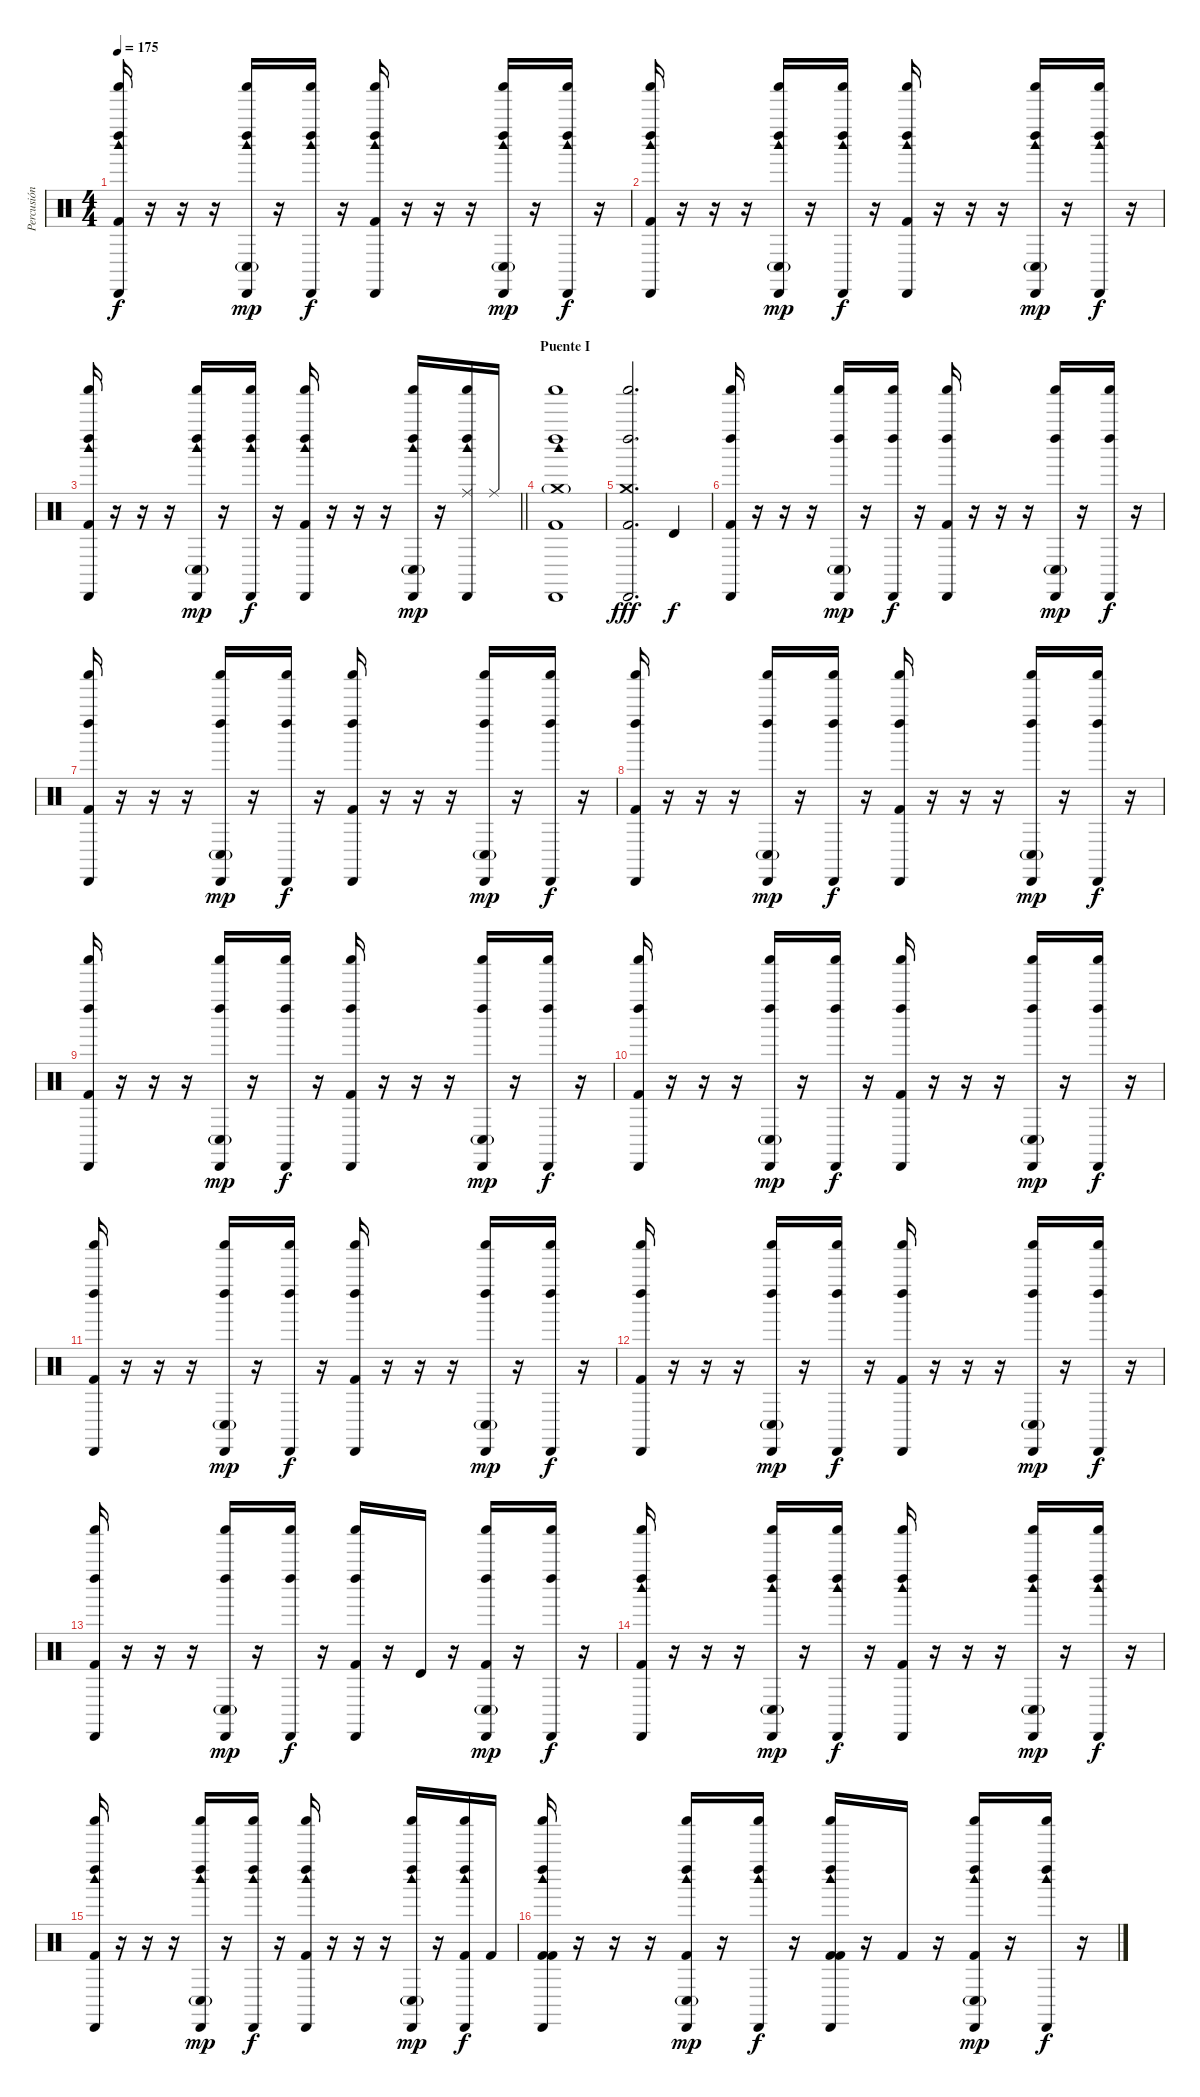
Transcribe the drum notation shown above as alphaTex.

\track ("Percusión" "Percusión") {instrument percussion}
\staff {score}
\articulation defaults
\ts (4 4)
\tempo 175
\clef neutral
\ks c
("Cabasa (hit)" "Shaker (hit)" "Kick (hit) 2" "Left Maraca (hit)" "Woodblock high (hit)").16{dy f} r.16 r.16 r.16 ("Cabasa (hit)" "Shaker (hit)" "Conga low (hit)"{g} "Left Maraca (hit)" "Woodblock high (hit)").16{dy mp} r.16 ("Cabasa (hit)" "Shaker (hit)" "Left Maraca (hit)" "Woodblock high (hit)").16{dy f} r.16 ("Cabasa (hit)" "Shaker (hit)" "Kick (hit) 2" "Left Maraca (hit)" "Woodblock high (hit)").16 r.16 r.16 r.16 ("Cabasa (hit)" "Shaker (hit)" "Conga low (hit)"{g} "Left Maraca (hit)" "Woodblock high (hit)").16{dy mp} r.16 ("Cabasa (hit)" "Shaker (hit)" "Left Maraca (hit)" "Woodblock high (hit)").16{dy f} r.16 |
("Cabasa (hit)" "Shaker (hit)" "Kick (hit) 2" "Left Maraca (hit)" "Woodblock high (hit)").16 r.16 r.16 r.16 ("Cabasa (hit)" "Shaker (hit)" "Conga low (hit)"{g} "Left Maraca (hit)" "Woodblock high (hit)").16{dy mp} r.16 ("Cabasa (hit)" "Shaker (hit)" "Left Maraca (hit)" "Woodblock high (hit)").16{dy f} r.16 ("Cabasa (hit)" "Shaker (hit)" "Kick (hit) 2" "Left Maraca (hit)" "Woodblock high (hit)").16 r.16 r.16 r.16 ("Cabasa (hit)" "Shaker (hit)" "Conga low (hit)"{g} "Left Maraca (hit)" "Woodblock high (hit)").16{dy mp} r.16 ("Cabasa (hit)" "Shaker (hit)" "Left Maraca (hit)" "Woodblock high (hit)").16{dy f} r.16 |
\barLineRight lightlight
("Cabasa (hit)" "Shaker (hit)" "Kick (hit) 2" "Left Maraca (hit)" "Woodblock high (hit)").16 r.16 r.16 r.16 ("Cabasa (hit)" "Shaker (hit)" "Conga low (hit)"{g} "Left Maraca (hit)" "Woodblock high (hit)").16{dy mp} r.16 ("Cabasa (hit)" "Shaker (hit)" "Left Maraca (hit)" "Woodblock high (hit)").16{dy f} r.16 ("Cabasa (hit)" "Shaker (hit)" "Kick (hit) 2" "Left Maraca (hit)" "Woodblock high (hit)").16 r.16 r.16 r.16 ("Cabasa (hit)" "Shaker (hit)" "Conga low (hit)"{g} "Left Maraca (hit)" "Woodblock high (hit)").16{dy mp} r.16 ("Ride (middle)" "Cabasa (hit)" "Shaker (hit)" "Left Maraca (hit)" "Woodblock high (hit)").16 "Ride (middle)".16 |
\section ("" "Puente I")
("Crash medium (hit)"{g} "Cabasa (hit)" "Shaker (hit)" "Kick (hit) 2" "Left Maraca (hit)" "Woodblock high (hit)").1 |
("Cabasa (hit)" "Left Maraca (hit)" "Crash medium (hit)" "Shaker (hit)" "Kick (hit) 2").2{d dy fff} "Timbale high (hit)".4{dy f} |
("Cabasa (hit)" "Shaker (hit)" "Kick (hit) 2" "Left Maraca (hit)").16 r.16 r.16 r.16 ("Cabasa (hit)" "Shaker (hit)" "Conga low (hit)"{g} "Left Maraca (hit)").16{dy mp} r.16 ("Cabasa (hit)" "Shaker (hit)" "Left Maraca (hit)").16{dy f} r.16 ("Cabasa (hit)" "Shaker (hit)" "Kick (hit) 2" "Left Maraca (hit)").16 r.16 r.16 r.16 ("Cabasa (hit)" "Shaker (hit)" "Conga low (hit)"{g} "Left Maraca (hit)").16{dy mp} r.16 ("Cabasa (hit)" "Shaker (hit)" "Left Maraca (hit)").16{dy f} r.16 |
("Cabasa (hit)" "Shaker (hit)" "Kick (hit) 2" "Left Maraca (hit)").16 r.16 r.16 r.16 ("Cabasa (hit)" "Shaker (hit)" "Conga low (hit)"{g} "Left Maraca (hit)").16{dy mp} r.16 ("Cabasa (hit)" "Shaker (hit)" "Left Maraca (hit)").16{dy f} r.16 ("Cabasa (hit)" "Shaker (hit)" "Kick (hit) 2" "Left Maraca (hit)").16 r.16 r.16 r.16 ("Cabasa (hit)" "Shaker (hit)" "Conga low (hit)"{g} "Left Maraca (hit)").16{dy mp} r.16 ("Cabasa (hit)" "Shaker (hit)" "Left Maraca (hit)").16{dy f} r.16 |
("Cabasa (hit)" "Shaker (hit)" "Kick (hit) 2" "Left Maraca (hit)").16 r.16 r.16 r.16 ("Cabasa (hit)" "Shaker (hit)" "Conga low (hit)"{g} "Left Maraca (hit)").16{dy mp} r.16 ("Cabasa (hit)" "Shaker (hit)" "Left Maraca (hit)").16{dy f} r.16 ("Cabasa (hit)" "Shaker (hit)" "Kick (hit) 2" "Left Maraca (hit)").16 r.16 r.16 r.16 ("Cabasa (hit)" "Shaker (hit)" "Conga low (hit)"{g} "Left Maraca (hit)").16{dy mp} r.16 ("Cabasa (hit)" "Shaker (hit)" "Left Maraca (hit)").16{dy f} r.16 |
("Cabasa (hit)" "Shaker (hit)" "Kick (hit) 2" "Left Maraca (hit)").16 r.16 r.16 r.16 ("Cabasa (hit)" "Shaker (hit)" "Conga low (hit)"{g} "Left Maraca (hit)").16{dy mp} r.16 ("Cabasa (hit)" "Shaker (hit)" "Left Maraca (hit)").16{dy f} r.16 ("Cabasa (hit)" "Shaker (hit)" "Kick (hit) 2" "Left Maraca (hit)").16 r.16 r.16 r.16 ("Cabasa (hit)" "Shaker (hit)" "Conga low (hit)"{g} "Left Maraca (hit)").16{dy mp} r.16 ("Cabasa (hit)" "Shaker (hit)" "Left Maraca (hit)").16{dy f} r.16 |
("Cabasa (hit)" "Shaker (hit)" "Kick (hit) 2" "Left Maraca (hit)").16 r.16 r.16 r.16 ("Cabasa (hit)" "Shaker (hit)" "Conga low (hit)"{g} "Left Maraca (hit)").16{dy mp} r.16 ("Cabasa (hit)" "Shaker (hit)" "Left Maraca (hit)").16{dy f} r.16 ("Cabasa (hit)" "Shaker (hit)" "Kick (hit) 2" "Left Maraca (hit)").16 r.16 r.16 r.16 ("Cabasa (hit)" "Shaker (hit)" "Conga low (hit)"{g} "Left Maraca (hit)").16{dy mp} r.16 ("Cabasa (hit)" "Shaker (hit)" "Left Maraca (hit)").16{dy f} r.16 |
("Cabasa (hit)" "Shaker (hit)" "Kick (hit) 2" "Left Maraca (hit)").16 r.16 r.16 r.16 ("Cabasa (hit)" "Shaker (hit)" "Conga low (hit)"{g} "Left Maraca (hit)").16{dy mp} r.16 ("Cabasa (hit)" "Shaker (hit)" "Left Maraca (hit)").16{dy f} r.16 ("Cabasa (hit)" "Shaker (hit)" "Kick (hit) 2" "Left Maraca (hit)").16 r.16 r.16 r.16 ("Cabasa (hit)" "Shaker (hit)" "Conga low (hit)"{g} "Left Maraca (hit)").16{dy mp} r.16 ("Cabasa (hit)" "Shaker (hit)" "Left Maraca (hit)").16{dy f} r.16 |
("Cabasa (hit)" "Shaker (hit)" "Kick (hit) 2" "Left Maraca (hit)").16 r.16 r.16 r.16 ("Cabasa (hit)" "Shaker (hit)" "Conga low (hit)"{g} "Left Maraca (hit)").16{dy mp} r.16 ("Cabasa (hit)" "Shaker (hit)" "Left Maraca (hit)").16{dy f} r.16 ("Cabasa (hit)" "Shaker (hit)" "Kick (hit) 2" "Left Maraca (hit)").16 r.16 r.16 r.16 ("Cabasa (hit)" "Shaker (hit)" "Conga low (hit)"{g} "Left Maraca (hit)").16{dy mp} r.16 ("Cabasa (hit)" "Shaker (hit)" "Left Maraca (hit)").16{dy f} r.16 |
("Cabasa (hit)" "Shaker (hit)" "Kick (hit) 2" "Left Maraca (hit)").16 r.16 r.16 r.16 ("Cabasa (hit)" "Shaker (hit)" "Conga low (hit)"{g} "Left Maraca (hit)").16{dy mp} r.16 ("Cabasa (hit)" "Shaker (hit)" "Left Maraca (hit)").16{dy f} r.16 ("Cabasa (hit)" "Shaker (hit)" "Kick (hit) 2" "Left Maraca (hit)").16 r.16 "Timbale high (hit)".16 r.16 ("Cabasa (hit)" "Shaker (hit)" "Conga low (hit)"{g} "Left Maraca (hit)" "Kick (hit) 2").16{dy mp} r.16 ("Cabasa (hit)" "Shaker (hit)" "Left Maraca (hit)").16{dy f} r.16 |
("Cabasa (hit)" "Shaker (hit)" "Kick (hit) 2" "Left Maraca (hit)" "Woodblock high (hit)").16 r.16 r.16 r.16 ("Cabasa (hit)" "Shaker (hit)" "Conga low (hit)"{g} "Left Maraca (hit)" "Woodblock high (hit)").16{dy mp} r.16 ("Cabasa (hit)" "Shaker (hit)" "Left Maraca (hit)" "Woodblock high (hit)").16{dy f} r.16 ("Cabasa (hit)" "Shaker (hit)" "Kick (hit) 2" "Left Maraca (hit)" "Woodblock high (hit)").16 r.16 r.16 r.16 ("Cabasa (hit)" "Shaker (hit)" "Conga low (hit)"{g} "Left Maraca (hit)" "Woodblock high (hit)").16{dy mp} r.16 ("Cabasa (hit)" "Shaker (hit)" "Left Maraca (hit)" "Woodblock high (hit)").16{dy f} r.16 |
("Cabasa (hit)" "Shaker (hit)" "Kick (hit) 2" "Left Maraca (hit)" "Woodblock high (hit)").16 r.16 r.16 r.16 ("Cabasa (hit)" "Shaker (hit)" "Conga low (hit)"{g} "Left Maraca (hit)" "Woodblock high (hit)").16{dy mp} r.16 ("Cabasa (hit)" "Shaker (hit)" "Left Maraca (hit)" "Woodblock high (hit)").16{dy f} r.16 ("Cabasa (hit)" "Shaker (hit)" "Kick (hit) 2" "Left Maraca (hit)" "Woodblock high (hit)").16 r.16 r.16 r.16 ("Cabasa (hit)" "Shaker (hit)" "Conga low (hit)"{g} "Left Maraca (hit)" "Woodblock high (hit)").16{dy mp} r.16 ("Kick (hit) 2" "Cabasa (hit)" "Shaker (hit)" "Left Maraca (hit)" "Woodblock high (hit)").16{dy f} "Kick (hit) 2".16 |
("Kick (hit) 2" "Cabasa (hit)" "Shaker (hit)" "Kick (hit) 2" "Left Maraca (hit)" "Woodblock high (hit)").16 r.16 r.16 r.16 ("Kick (hit) 2" "Cabasa (hit)" "Shaker (hit)" "Conga low (hit)"{g} "Left Maraca (hit)" "Woodblock high (hit)").16{dy mp} r.16 ("Cabasa (hit)" "Shaker (hit)" "Left Maraca (hit)" "Woodblock high (hit)").16{dy f} r.16 ("Kick (hit) 2" "Cabasa (hit)" "Shaker (hit)" "Kick (hit) 2" "Left Maraca (hit)" "Woodblock high (hit)").16 r.16 "Kick (hit) 2".16 r.16 ("Kick (hit) 2" "Cabasa (hit)" "Shaker (hit)" "Conga low (hit)"{g} "Left Maraca (hit)" "Woodblock high (hit)").16{dy mp} r.16 ("Cabasa (hit)" "Shaker (hit)" "Left Maraca (hit)" "Woodblock high (hit)").16{dy f} r.16
